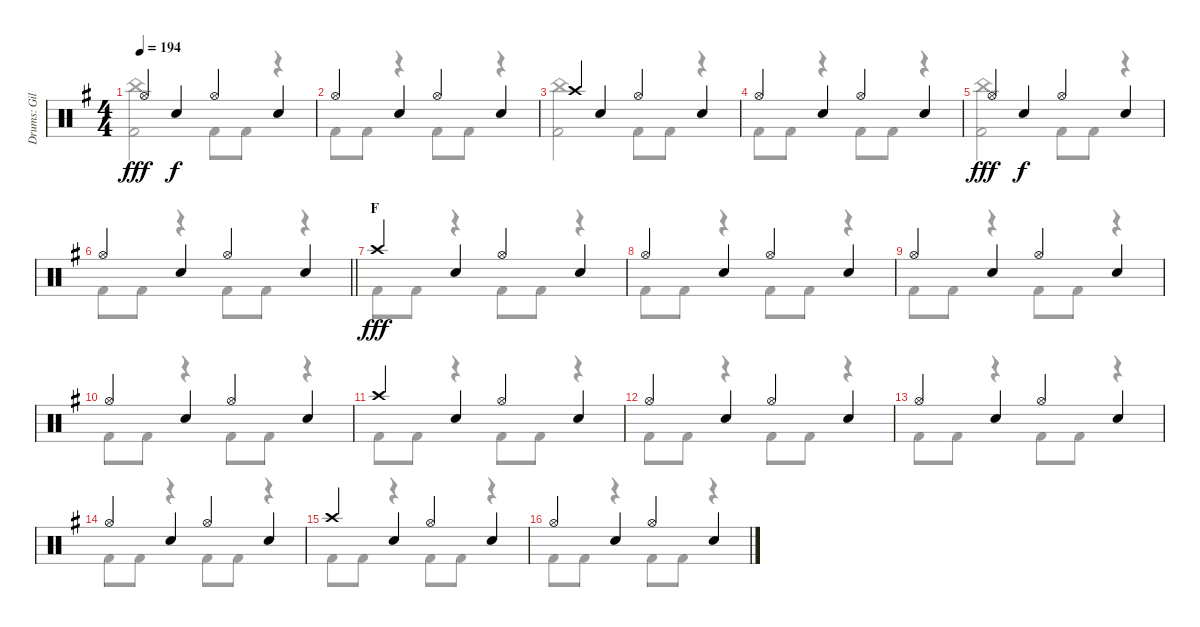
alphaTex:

\track ("Drums: Gil" "Drums: Gil") {instrument percussion}
\staff {score}
\articulation defaults
\voice
\ts (4 4)
\tempo 194
\clef neutral
\ks g "Hi-Hat (open)".4{dy fff} "Snare (hit) 2".4{dy f} "Hi-Hat (open)".4 "Snare (hit) 2".4
|
"Hi-Hat (open)".4 "Snare (hit) 2".4 "Hi-Hat (open)".4 "Snare (hit) 2".4 |
"Crash high (hit)".4 "Snare (hit) 2".4 "Hi-Hat (open)".4 "Snare (hit) 2".4 |
"Hi-Hat (open)".4 "Snare (hit) 2".4 "Hi-Hat (open)".4 "Snare (hit) 2".4 |
"Hi-Hat (open)".4{dy fff} "Snare (hit) 2".4{dy f} "Hi-Hat (open)".4 "Snare (hit) 2".4 |
\barLineRight lightlight "Hi-Hat (open)".4 "Snare (hit) 2".4 "Hi-Hat (open)".4 "Snare (hit) 2".4
|
\section ("" "F")
"Crash high (hit)".4{dy fff} "Snare (hit) 2".4 "Hi-Hat (open)".4 "Snare (hit) 2".4 |
"Hi-Hat (open)".4 "Snare (hit) 2".4 "Hi-Hat (open)".4 "Snare (hit) 2".4 |
"Hi-Hat (open)".4 "Snare (hit) 2".4 "Hi-Hat (open)".4 "Snare (hit) 2".4 |
"Hi-Hat (open)".4 "Snare (hit) 2".4 "Hi-Hat (open)".4 "Snare (hit) 2".4 |
"Crash high (hit)".4 "Snare (hit) 2".4 "Hi-Hat (open)".4 "Snare (hit) 2".4 |
"Hi-Hat (open)".4 "Snare (hit) 2".4 "Hi-Hat (open)".4 "Snare (hit) 2".4 |
"Hi-Hat (open)".4 "Snare (hit) 2".4 "Hi-Hat (open)".4 "Snare (hit) 2".4 |
"Hi-Hat (open)".4 "Snare (hit) 2".4 "Hi-Hat (open)".4 "Snare (hit) 2".4 |
"Crash high (hit)".4 "Snare (hit) 2".4 "Hi-Hat (open)".4 "Snare (hit) 2".4 |
"Hi-Hat (open)".4 "Snare (hit) 2".4 "Hi-Hat (open)".4 "Snare (hit) 2".4
\voice
\clef neutral
\ottava regular
\simile none
\ks g
("China (hit)" "Kick (hit) 2").2{dy fff} "Kick (hit) 2".8 "Kick (hit) 2".8{beam merge} r.4 |
"Kick (hit) 2".8 "Kick (hit) 2".8 r.4 "Kick (hit) 2".8 "Kick (hit) 2".8 r.4 |
("China (hit)" "Kick (hit) 2").2 "Kick (hit) 2".8 "Kick (hit) 2".8{beam merge} r.4 |
"Kick (hit) 2".8 "Kick (hit) 2".8 r.4 "Kick (hit) 2".8 "Kick (hit) 2".8 r.4 |
("China (hit)" "Kick (hit) 2").2 "Kick (hit) 2".8 "Kick (hit) 2".8{beam merge} r.4 |
\barLineRight lightlight "Kick (hit) 2".8 "Kick (hit) 2".8
r.4 "Kick (hit) 2".8 "Kick (hit) 2".8 r.4 |
"Kick (hit) 2".8 "Kick (hit) 2".8 r.4 "Kick (hit) 2".8 "Kick (hit) 2".8 r.4 |
"Kick (hit) 2".8 "Kick (hit) 2".8 r.4 "Kick (hit) 2".8 "Kick (hit) 2".8 r.4 |
"Kick (hit) 2".8 "Kick (hit) 2".8 r.4 "Kick (hit) 2".8 "Kick (hit) 2".8 r.4 |
"Kick (hit) 2".8 "Kick (hit) 2".8 r.4 "Kick (hit) 2".8 "Kick (hit) 2".8 r.4 |
"Kick (hit) 2".8 "Kick (hit) 2".8 r.4 "Kick (hit) 2".8 "Kick (hit) 2".8 r.4 |
"Kick (hit) 2".8 "Kick (hit) 2".8 r.4 "Kick (hit) 2".8 "Kick (hit) 2".8 r.4 |
"Kick (hit) 2".8 "Kick (hit) 2".8 r.4 "Kick (hit) 2".8 "Kick (hit) 2".8 r.4 |
"Kick (hit) 2".8 "Kick (hit) 2".8 r.4 "Kick (hit) 2".8 "Kick (hit) 2".8 r.4 |
"Kick (hit) 2".8 "Kick (hit) 2".8 r.4 "Kick (hit) 2".8 "Kick (hit) 2".8 r.4 |
"Kick (hit) 2".8 "Kick (hit) 2".8 r.4 "Kick (hit) 2".8 "Kick (hit) 2".8 r.4
